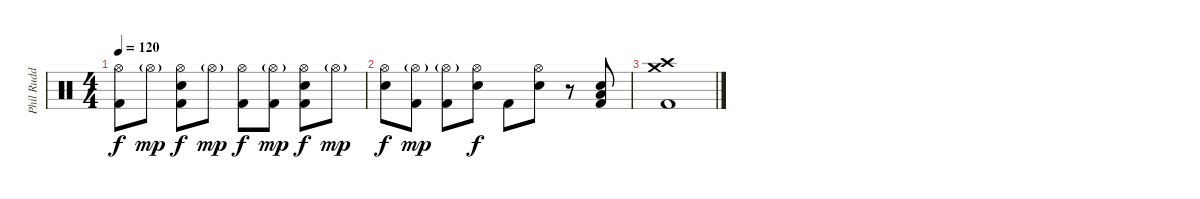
\track ("Phil Rudd" "Phil Rudd") {instrument percussion}
\staff {score}
\articulation defaults
\ts (4 4)
\tempo 120
\clef neutral
\ks c
("Hi-Hat (open)" "Kick (hit) 2").8{dy f} "Hi-Hat (open)"{g}.8{dy mp} ("Hi-Hat (open)" "Electric Snare (hit)" "Kick (hit) 2").8{dy f} "Hi-Hat (open)"{g}.8{dy mp} ("Hi-Hat (open)" "Kick (hit) 2").8{dy f} ("Hi-Hat (open)"{g} "Kick (hit) 2").8{dy mp} ("Hi-Hat (open)" "Electric Snare (hit)" "Kick (hit) 2").8{dy f} "Hi-Hat (open)"{g}.8{dy mp} |
("Hi-Hat (open)" "Electric Snare (hit)").8{dy f} ("Hi-Hat (open)"{g} "Kick (hit) 2").8{dy mp} ("Hi-Hat (open)"{g} "Kick (hit) 2").8 ("Hi-Hat (open)" "Electric Snare (hit)").8{dy f} "Kick (hit) 2".8 ("Hi-Hat (open)" "Electric Snare (hit)").8 r.8 ("Electric Snare (hit)" "Low Floor Tom (hit)" "Kick (hit) 2").8 |
("Crash high (hit)" "Crash medium (hit)" "Kick (hit) 2").1
